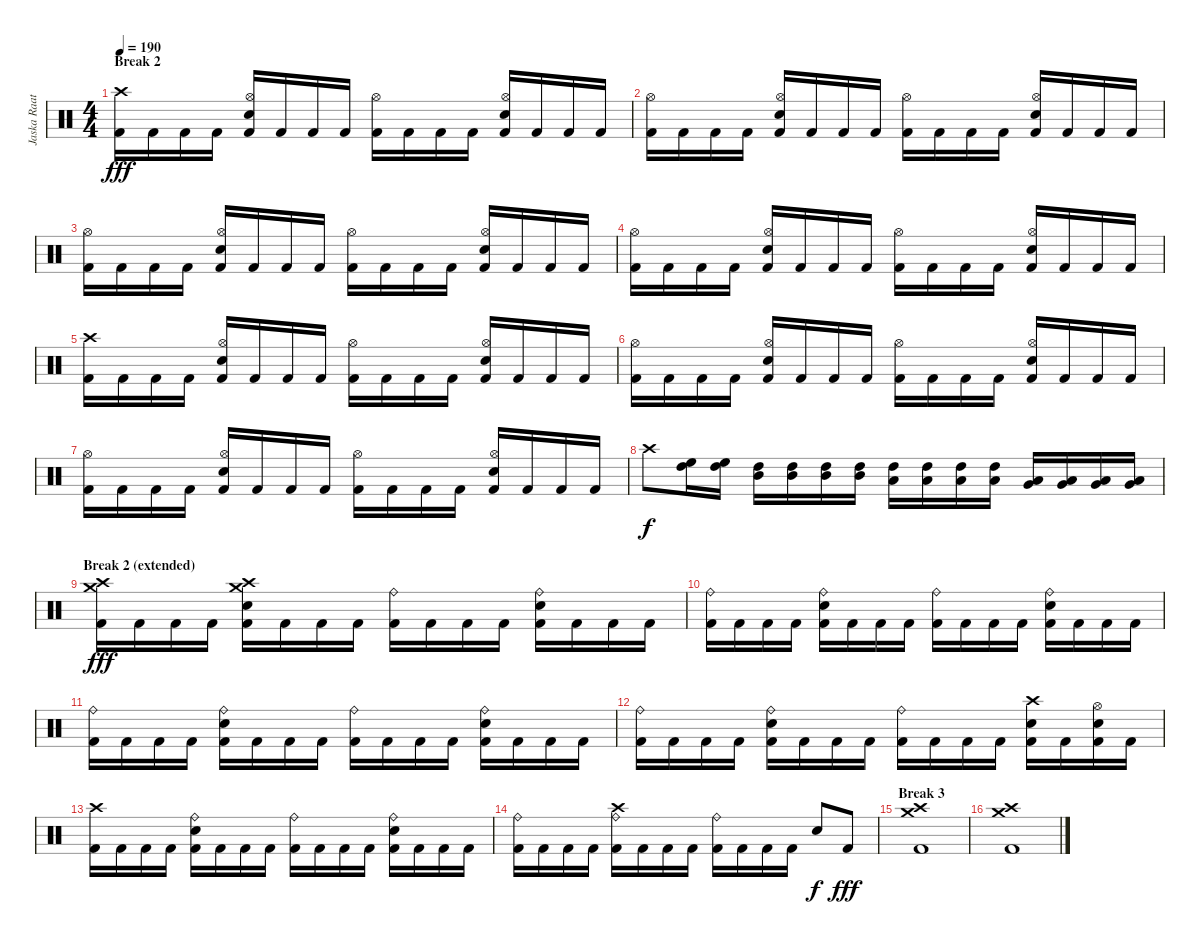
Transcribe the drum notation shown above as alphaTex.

\track ("Jaska Raatikainen (Drums)" "Jaska Raat") {instrument percussion}
\staff {score}
\articulation defaults
\ts (4 4)
\section ("" "Break 2")
\tempo 190
\clef neutral
\ks c
("Crash high (hit)" "Kick (hit) 2").16{dy fff} "Kick (hit) 2".16 "Kick (hit) 2".16 "Kick (hit) 2".16 ("Hi-Hat (open)" "Electric Snare (hit)" "Kick (hit) 2").16 "Kick (hit) 2".16 "Kick (hit) 2".16 "Kick (hit) 2".16 ("Hi-Hat (open)" "Kick (hit) 2").16 "Kick (hit) 2".16 "Kick (hit) 2".16 "Kick (hit) 2".16 ("Hi-Hat (open)" "Electric Snare (hit)" "Kick (hit) 2").16 "Kick (hit) 2".16 "Kick (hit) 2".16 "Kick (hit) 2".16 |
("Hi-Hat (open)" "Kick (hit) 2").16 "Kick (hit) 2".16 "Kick (hit) 2".16 "Kick (hit) 2".16 ("Hi-Hat (open)" "Electric Snare (hit)" "Kick (hit) 2").16 "Kick (hit) 2".16 "Kick (hit) 2".16 "Kick (hit) 2".16 ("Hi-Hat (open)" "Kick (hit) 2").16 "Kick (hit) 2".16 "Kick (hit) 2".16 "Kick (hit) 2".16 ("Hi-Hat (open)" "Electric Snare (hit)" "Kick (hit) 2").16 "Kick (hit) 2".16 "Kick (hit) 2".16 "Kick (hit) 2".16 |
("Hi-Hat (open)" "Kick (hit) 2").16 "Kick (hit) 2".16 "Kick (hit) 2".16 "Kick (hit) 2".16 ("Hi-Hat (open)" "Electric Snare (hit)" "Kick (hit) 2").16 "Kick (hit) 2".16 "Kick (hit) 2".16 "Kick (hit) 2".16 ("Hi-Hat (open)" "Kick (hit) 2").16 "Kick (hit) 2".16 "Kick (hit) 2".16 "Kick (hit) 2".16 ("Hi-Hat (open)" "Electric Snare (hit)" "Kick (hit) 2").16 "Kick (hit) 2".16 "Kick (hit) 2".16 "Kick (hit) 2".16 |
("Hi-Hat (open)" "Kick (hit) 2").16 "Kick (hit) 2".16 "Kick (hit) 2".16 "Kick (hit) 2".16 ("Hi-Hat (open)" "Electric Snare (hit)" "Kick (hit) 2").16 "Kick (hit) 2".16 "Kick (hit) 2".16 "Kick (hit) 2".16 ("Hi-Hat (open)" "Kick (hit) 2").16 "Kick (hit) 2".16 "Kick (hit) 2".16 "Kick (hit) 2".16 ("Hi-Hat (open)" "Electric Snare (hit)" "Kick (hit) 2").16 "Kick (hit) 2".16 "Kick (hit) 2".16 "Kick (hit) 2".16 |
("Crash high (hit)" "Kick (hit) 2").16 "Kick (hit) 2".16 "Kick (hit) 2".16 "Kick (hit) 2".16 ("Hi-Hat (open)" "Electric Snare (hit)" "Kick (hit) 2").16 "Kick (hit) 2".16 "Kick (hit) 2".16 "Kick (hit) 2".16 ("Hi-Hat (open)" "Kick (hit) 2").16 "Kick (hit) 2".16 "Kick (hit) 2".16 "Kick (hit) 2".16 ("Hi-Hat (open)" "Electric Snare (hit)" "Kick (hit) 2").16 "Kick (hit) 2".16 "Kick (hit) 2".16 "Kick (hit) 2".16 |
("Hi-Hat (open)" "Kick (hit) 2").16 "Kick (hit) 2".16 "Kick (hit) 2".16 "Kick (hit) 2".16 ("Hi-Hat (open)" "Electric Snare (hit)" "Kick (hit) 2").16 "Kick (hit) 2".16 "Kick (hit) 2".16 "Kick (hit) 2".16 ("Hi-Hat (open)" "Kick (hit) 2").16 "Kick (hit) 2".16 "Kick (hit) 2".16 "Kick (hit) 2".16 ("Hi-Hat (open)" "Electric Snare (hit)" "Kick (hit) 2").16 "Kick (hit) 2".16 "Kick (hit) 2".16 "Kick (hit) 2".16 |
("Hi-Hat (open)" "Kick (hit) 2").16 "Kick (hit) 2".16 "Kick (hit) 2".16 "Kick (hit) 2".16 ("Hi-Hat (open)" "Electric Snare (hit)" "Kick (hit) 2").16 "Kick (hit) 2".16 "Kick (hit) 2".16 "Kick (hit) 2".16 ("Hi-Hat (open)" "Kick (hit) 2").16 "Kick (hit) 2".16 "Kick (hit) 2".16 "Kick (hit) 2".16 ("Hi-Hat (open)" "Electric Snare (hit)" "Kick (hit) 2").16 "Kick (hit) 2".16 "Kick (hit) 2".16 "Kick (hit) 2".16 |
"Crash high (hit)".8{dy f} ("High Tom (hit)" "High Floor Tom (hit)").16 ("High Tom (hit)" "High Floor Tom (hit)").16 ("Mid Tom (hit)" "High Tom (hit)").16 ("Mid Tom (hit)" "High Tom (hit)").16 ("Mid Tom (hit)" "High Tom (hit)").16 ("Mid Tom (hit)" "High Tom (hit)").16 ("Low Tom (hit)" "High Tom (hit)").16 ("Low Tom (hit)" "High Tom (hit)").16 ("Low Tom (hit)" "High Tom (hit)").16 ("Low Tom (hit)" "High Tom (hit)").16 ("Very Low Tom (hit)" "Low Tom (hit)").16 ("Very Low Tom (hit)" "Low Tom (hit)").16 ("Very Low Tom (hit)" "Low Tom (hit)").16 ("Very Low Tom (hit)" "Low Tom (hit)").16 |
\section ("" "Break 2 (extended)")
("Crash high (hit)" "Crash medium (hit)" "Kick (hit) 2").16{dy fff} "Kick (hit) 2".16 "Kick (hit) 2".16 "Kick (hit) 2".16 ("Crash high (hit)" "Crash medium (hit)" "Electric Snare (hit)" "Kick (hit) 2").16 "Kick (hit) 2".16 "Kick (hit) 2".16 "Kick (hit) 2".16 ("Ride (bell)" "Kick (hit) 2").16 "Kick (hit) 2".16 "Kick (hit) 2".16 "Kick (hit) 2".16 ("Ride (bell)" "Electric Snare (hit)" "Kick (hit) 2").16 "Kick (hit) 2".16 "Kick (hit) 2".16 "Kick (hit) 2".16 |
("Ride (bell)" "Kick (hit) 2").16 "Kick (hit) 2".16 "Kick (hit) 2".16 "Kick (hit) 2".16 ("Ride (bell)" "Electric Snare (hit)" "Kick (hit) 2").16 "Kick (hit) 2".16 "Kick (hit) 2".16 "Kick (hit) 2".16 ("Ride (bell)" "Kick (hit) 2").16 "Kick (hit) 2".16 "Kick (hit) 2".16 "Kick (hit) 2".16 ("Ride (bell)" "Electric Snare (hit)" "Kick (hit) 2").16 "Kick (hit) 2".16 "Kick (hit) 2".16 "Kick (hit) 2".16 |
("Ride (bell)" "Kick (hit) 2").16 "Kick (hit) 2".16 "Kick (hit) 2".16 "Kick (hit) 2".16 ("Ride (bell)" "Electric Snare (hit)" "Kick (hit) 2").16 "Kick (hit) 2".16 "Kick (hit) 2".16 "Kick (hit) 2".16 ("Ride (bell)" "Kick (hit) 2").16 "Kick (hit) 2".16 "Kick (hit) 2".16 "Kick (hit) 2".16 ("Ride (bell)" "Electric Snare (hit)" "Kick (hit) 2").16 "Kick (hit) 2".16 "Kick (hit) 2".16 "Kick (hit) 2".16 |
("Ride (bell)" "Kick (hit) 2").16 "Kick (hit) 2".16 "Kick (hit) 2".16 "Kick (hit) 2".16 ("Ride (bell)" "Electric Snare (hit)" "Kick (hit) 2").16 "Kick (hit) 2".16 "Kick (hit) 2".16 "Kick (hit) 2".16 ("Ride (bell)" "Kick (hit) 2").16 "Kick (hit) 2".16 "Kick (hit) 2".16 "Kick (hit) 2".16 ("Crash high (hit)" "Electric Snare (hit)" "Kick (hit) 2").16 "Kick (hit) 2".16 ("Hi-Hat (open)" "Electric Snare (hit)" "Kick (hit) 2").16 "Kick (hit) 2".16 |
("Crash high (hit)" "Kick (hit) 2").16 "Kick (hit) 2".16 "Kick (hit) 2".16 "Kick (hit) 2".16 ("Ride (bell)" "Electric Snare (hit)" "Kick (hit) 2").16 "Kick (hit) 2".16 "Kick (hit) 2".16 "Kick (hit) 2".16 ("Ride (bell)" "Kick (hit) 2").16 "Kick (hit) 2".16 "Kick (hit) 2".16 "Kick (hit) 2".16 ("Ride (bell)" "Electric Snare (hit)" "Kick (hit) 2").16 "Kick (hit) 2".16 "Kick (hit) 2".16 "Kick (hit) 2".16 |
("Ride (bell)" "Kick (hit) 2").16 "Kick (hit) 2".16 "Kick (hit) 2".16 "Kick (hit) 2".16 ("Ride (bell)" "Crash high (hit)" "Kick (hit) 2").16 "Kick (hit) 2".16 "Kick (hit) 2".16 "Kick (hit) 2".16 ("Ride (bell)" "Kick (hit) 2").16 "Kick (hit) 2".16 "Kick (hit) 2".16 "Kick (hit) 2".16 "Electric Snare (hit)".8{dy f} "Kick (hit) 2".8{dy fff} |
\section ("" "Break 3")
("Crash high (hit)" "Crash medium (hit)" "Kick (hit) 2").1 |
("Crash high (hit)" "Crash medium (hit)" "Kick (hit) 2").1
